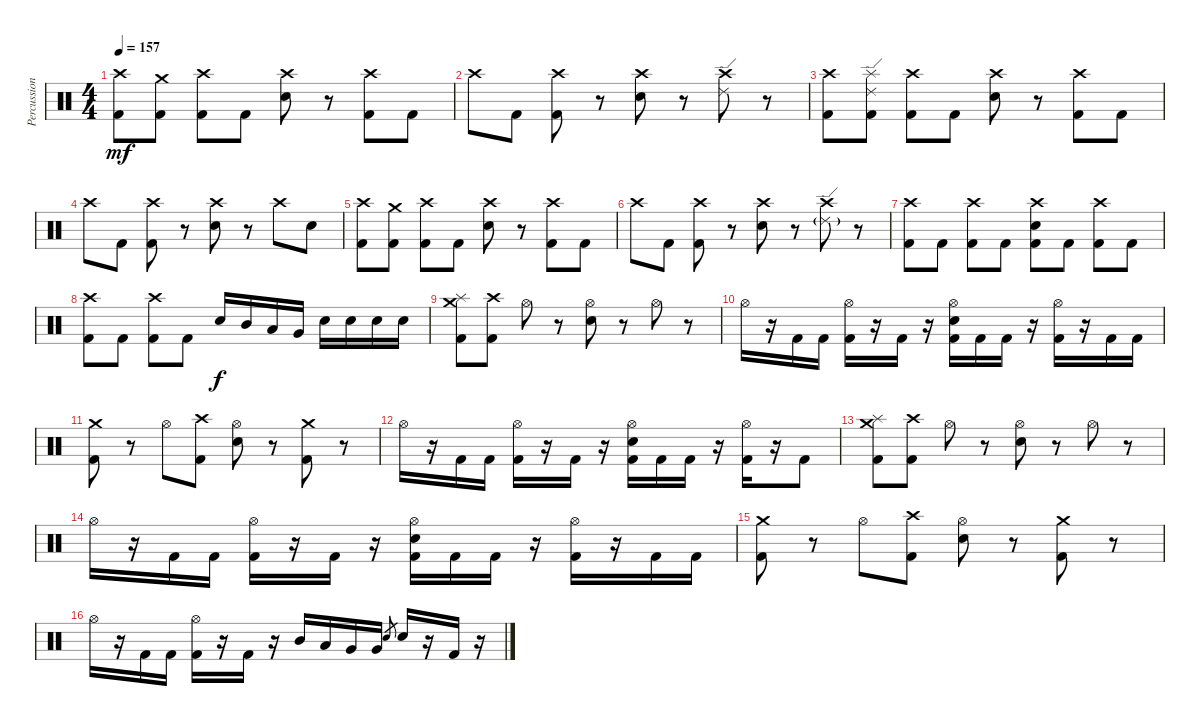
\track ("Percussions" "Percussion") {instrument percussion}
\staff {score}
\articulation defaults
\ts (4 4)
\tempo 157
\clef neutral
\ks c
("Crash high (hit)" "Kick (hit) 2").8{dy mf} ("Crash medium (hit)" "Kick (hit) 2").8 ("Crash high (hit)" "Kick (hit) 2").8 "Kick (hit) 2".8 ("Crash high (hit)" "Electric Snare (hit)").8 r.8 ("Crash high (hit)" "Kick (hit) 2").8 "Kick (hit) 2".8 |
"Crash high (hit)".8 "Kick (hit) 2".8 ("Crash high (hit)" "Kick (hit) 2").8 r.8 ("Crash high (hit)" "Electric Snare (hit)").8 r.8 ("Ride (edge) 2" "Crash high (hit)").8 r.8 |
("Crash high (hit)" "Kick (hit) 2").8 ("Ride (edge) 2" "Splash (hit)" "Kick (hit) 2").8 ("Crash high (hit)" "Kick (hit) 2").8 "Kick (hit) 2".8 ("Crash high (hit)" "Electric Snare (hit)").8 r.8 ("Crash high (hit)" "Kick (hit) 2").8 "Kick (hit) 2".8 |
"Crash high (hit)".8 "Kick (hit) 2".8 ("Crash high (hit)" "Kick (hit) 2").8 r.8 ("Crash high (hit)" "Electric Snare (hit)").8 r.8 "Crash high (hit)".8 "Electric Snare (hit)".8 |
("Crash high (hit)" "Kick (hit) 2").8 ("Crash medium (hit)" "Kick (hit) 2").8 ("Crash high (hit)" "Kick (hit) 2").8 "Kick (hit) 2".8 ("Crash high (hit)" "Electric Snare (hit)").8 r.8 ("Crash high (hit)" "Kick (hit) 2").8 "Kick (hit) 2".8 |
"Crash high (hit)".8 "Kick (hit) 2".8 ("Crash high (hit)" "Kick (hit) 2").8 r.8 ("Crash high (hit)" "Electric Snare (hit)").8 r.8 ("Ride (edge) 2"{g} "Crash high (hit)").8 r.8 |
("Crash high (hit)" "Kick (hit) 2").8 "Kick (hit) 2".8 ("Crash high (hit)" "Kick (hit) 2").8 "Kick (hit) 2".8 ("Crash high (hit)" "Electric Snare (hit)" "Kick (hit) 2").8 "Kick (hit) 2".8 ("Crash high (hit)" "Kick (hit) 2").8 "Kick (hit) 2".8 |
("Crash high (hit)" "Kick (hit) 2").8 "Kick (hit) 2".8 ("Crash high (hit)" "Kick (hit) 2").8 "Kick (hit) 2".8 "Electric Snare (hit)".16{dy f} "Mid Tom (hit)".16 "Low Tom (hit)".16 "Very Low Tom (hit)".16 "Electric Snare (hit)".16 "Electric Snare (hit)".16 "Electric Snare (hit)".16 "Electric Snare (hit)".16 |
("Crash medium (hit)" "Splash (hit)" "Kick (hit) 2").8 ("Crash high (hit)" "Kick (hit) 2").8 "Hi-Hat (open)".8 r.8 ("Hi-Hat (open)" "Electric Snare (hit)").8 r.8 "Hi-Hat (open)".8 r.8 |
"Hi-Hat (open)".16 r.16 "Kick (hit) 2".16 "Kick (hit) 2".16 ("Hi-Hat (open)" "Kick (hit) 2").16 r.16 "Kick (hit) 2".16 r.16 ("Hi-Hat (open)" "Electric Snare (hit)" "Kick (hit) 2").16 "Kick (hit) 2".16 "Kick (hit) 2".16 r.16 ("Hi-Hat (open)" "Kick (hit) 2").16 r.16 "Kick (hit) 2".16 "Kick (hit) 2".16 |
("Crash medium (hit)" "Kick (hit) 2").8 r.8 "Hi-Hat (open)".8 ("Crash high (hit)" "Kick (hit) 2").8 ("Hi-Hat (open)" "Electric Snare (hit)").8 r.8 ("Crash medium (hit)" "Kick (hit) 2").8 r.8 |
"Hi-Hat (open)".16 r.16 "Kick (hit) 2".16 "Kick (hit) 2".16 ("Hi-Hat (open)" "Kick (hit) 2").16 r.16 "Kick (hit) 2".16 r.16 ("Hi-Hat (open)" "Electric Snare (hit)" "Kick (hit) 2").16 "Kick (hit) 2".16 "Kick (hit) 2".16 r.16 ("Hi-Hat (open)" "Kick (hit) 2").16 r.16 "Kick (hit) 2".8 |
("Crash medium (hit)" "Splash (hit)" "Kick (hit) 2").8 ("Crash high (hit)" "Kick (hit) 2").8 "Hi-Hat (open)".8 r.8 ("Hi-Hat (open)" "Electric Snare (hit)").8 r.8 "Hi-Hat (open)".8 r.8 |
"Hi-Hat (open)".16 r.16 "Kick (hit) 2".16 "Kick (hit) 2".16 ("Hi-Hat (open)" "Kick (hit) 2").16 r.16 "Kick (hit) 2".16 r.16 ("Hi-Hat (open)" "Electric Snare (hit)" "Kick (hit) 2").16 "Kick (hit) 2".16 "Kick (hit) 2".16 r.16 ("Hi-Hat (open)" "Kick (hit) 2").16 r.16 "Kick (hit) 2".16 "Kick (hit) 2".16 |
("Crash medium (hit)" "Kick (hit) 2").8 r.8 "Hi-Hat (open)".8 ("Crash high (hit)" "Kick (hit) 2").8 ("Hi-Hat (open)" "Electric Snare (hit)").8 r.8 ("Crash medium (hit)" "Kick (hit) 2").8 r.8 |
"Hi-Hat (open)".16 r.16 "Kick (hit) 2".16 "Kick (hit) 2".16 ("Hi-Hat (open)" "Kick (hit) 2").16 r.16 "Kick (hit) 2".16 r.16 "Mid Tom (hit)".16 "Low Tom (hit)".16 "Very Low Tom (hit)".16 "Very Low Tom (hit)".16 "Electric Snare (hit)".8{gr} "Electric Snare (hit)".16 r.16 "Kick (hit) 2".16 r.16
